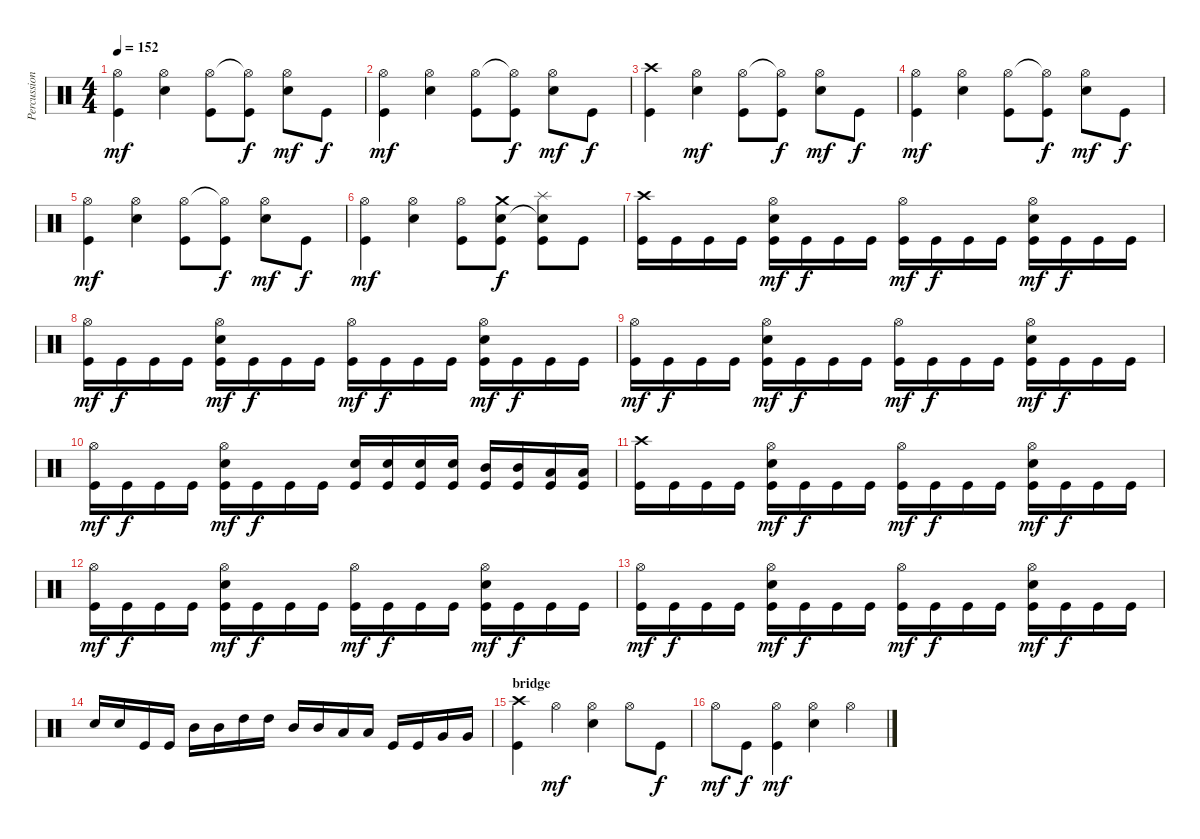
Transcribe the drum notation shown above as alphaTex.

\track ("Percussion" "Percussion") {instrument percussion}
\staff {score}
\articulation defaults
\ts (4 4)
\tempo 152
\clef neutral
\ks c
("Hi-Hat (open)" "Kick (hit)").4{dy mf} ("Hi-Hat (open)" "Snare (hit) 2").4 ("Hi-Hat (open)" "Kick (hit)").8 ("Hi-Hat (open)"{t} "Kick (hit)").8{dy f} ("Hi-Hat (open)" "Snare (hit) 2").8{dy mf} "Kick (hit)".8{dy f} |
("Hi-Hat (open)" "Kick (hit)").4{dy mf} ("Hi-Hat (open)" "Snare (hit) 2").4 ("Hi-Hat (open)" "Kick (hit)").8 ("Hi-Hat (open)"{t} "Kick (hit)").8{dy f} ("Hi-Hat (open)" "Snare (hit) 2").8{dy mf} "Kick (hit)".8{dy f} |
("Crash high (hit)" "Kick (hit)").4 ("Hi-Hat (open)" "Snare (hit) 2").4{dy mf} ("Hi-Hat (open)" "Kick (hit)").8 ("Hi-Hat (open)"{t} "Kick (hit)").8{dy f} ("Hi-Hat (open)" "Snare (hit) 2").8{dy mf} "Kick (hit)".8{dy f} |
("Hi-Hat (open)" "Kick (hit)").4{dy mf} ("Hi-Hat (open)" "Snare (hit) 2").4 ("Hi-Hat (open)" "Kick (hit)").8 ("Hi-Hat (open)"{t} "Kick (hit)").8{dy f} ("Hi-Hat (open)" "Snare (hit) 2").8{dy mf} "Kick (hit)".8{dy f} |
("Hi-Hat (open)" "Kick (hit)").4{dy mf} ("Hi-Hat (open)" "Snare (hit) 2").4 ("Hi-Hat (open)" "Kick (hit)").8 ("Hi-Hat (open)"{t} "Kick (hit)").8{dy f} ("Hi-Hat (open)" "Snare (hit) 2").8{dy mf} "Kick (hit)".8{dy f} |
("Hi-Hat (open)" "Kick (hit)").4{dy mf} ("Hi-Hat (open)" "Snare (hit) 2").4 ("Hi-Hat (open)" "Kick (hit)").8 ("Crash medium (hit)" "Snare (hit) 2" "Kick (hit)").8{dy f} ("Splash (hit)" "Snare (hit) 2"{t} "Kick (hit)").8 "Kick (hit)".8 |
("Crash high (hit)" "Kick (hit)").16 "Kick (hit)".16 "Kick (hit)".16 "Kick (hit)".16 ("Hi-Hat (open)" "Snare (hit) 2" "Kick (hit)").16{dy mf} "Kick (hit)".16{dy f} "Kick (hit)".16 "Kick (hit)".16 ("Hi-Hat (open)" "Kick (hit)").16{dy mf} "Kick (hit)".16{dy f} "Kick (hit)".16 "Kick (hit)".16 ("Hi-Hat (open)" "Snare (hit) 2" "Kick (hit)").16{dy mf} "Kick (hit)".16{dy f} "Kick (hit)".16 "Kick (hit)".16 |
("Hi-Hat (open)" "Kick (hit)").16{dy mf} "Kick (hit)".16{dy f} "Kick (hit)".16 "Kick (hit)".16 ("Hi-Hat (open)" "Snare (hit) 2" "Kick (hit)").16{dy mf} "Kick (hit)".16{dy f} "Kick (hit)".16 "Kick (hit)".16 ("Hi-Hat (open)" "Kick (hit)").16{dy mf} "Kick (hit)".16{dy f} "Kick (hit)".16 "Kick (hit)".16 ("Hi-Hat (open)" "Snare (hit) 2" "Kick (hit)").16{dy mf} "Kick (hit)".16{dy f} "Kick (hit)".16 "Kick (hit)".16 |
("Hi-Hat (open)" "Kick (hit)").16{dy mf} "Kick (hit)".16{dy f} "Kick (hit)".16 "Kick (hit)".16 ("Hi-Hat (open)" "Snare (hit) 2" "Kick (hit)").16{dy mf} "Kick (hit)".16{dy f} "Kick (hit)".16 "Kick (hit)".16 ("Hi-Hat (open)" "Kick (hit)").16{dy mf} "Kick (hit)".16{dy f} "Kick (hit)".16 "Kick (hit)".16 ("Hi-Hat (open)" "Snare (hit) 2" "Kick (hit)").16{dy mf} "Kick (hit)".16{dy f} "Kick (hit)".16 "Kick (hit)".16 |
("Hi-Hat (open)" "Kick (hit)").16{dy mf} "Kick (hit)".16{dy f} "Kick (hit)".16 "Kick (hit)".16 ("Hi-Hat (open)" "Snare (hit) 2" "Kick (hit)").16{dy mf} "Kick (hit)".16{dy f} "Kick (hit)".16 "Kick (hit)".16 ("Snare (hit) 2" "Kick (hit)").16 ("Snare (hit) 2" "Kick (hit)").16 ("Snare (hit) 2" "Kick (hit)").16 ("Snare (hit) 2" "Kick (hit)").16 ("Mid Tom (hit)" "Kick (hit)").16 ("Mid Tom (hit)" "Kick (hit)").16 ("Low Tom (hit)" "Kick (hit)").16 ("Low Tom (hit)" "Kick (hit)").16 |
("Crash high (hit)" "Kick (hit)").16 "Kick (hit)".16 "Kick (hit)".16 "Kick (hit)".16 ("Hi-Hat (open)" "Snare (hit) 2" "Kick (hit)").16{dy mf} "Kick (hit)".16{dy f} "Kick (hit)".16 "Kick (hit)".16 ("Hi-Hat (open)" "Kick (hit)").16{dy mf} "Kick (hit)".16{dy f} "Kick (hit)".16 "Kick (hit)".16 ("Hi-Hat (open)" "Snare (hit) 2" "Kick (hit)").16{dy mf} "Kick (hit)".16{dy f} "Kick (hit)".16 "Kick (hit)".16 |
("Hi-Hat (open)" "Kick (hit)").16{dy mf} "Kick (hit)".16{dy f} "Kick (hit)".16 "Kick (hit)".16 ("Hi-Hat (open)" "Snare (hit) 2" "Kick (hit)").16{dy mf} "Kick (hit)".16{dy f} "Kick (hit)".16 "Kick (hit)".16 ("Hi-Hat (open)" "Kick (hit)").16{dy mf} "Kick (hit)".16{dy f} "Kick (hit)".16 "Kick (hit)".16 ("Hi-Hat (open)" "Snare (hit) 2" "Kick (hit)").16{dy mf} "Kick (hit)".16{dy f} "Kick (hit)".16 "Kick (hit)".16 |
("Hi-Hat (open)" "Kick (hit)").16{dy mf} "Kick (hit)".16{dy f} "Kick (hit)".16 "Kick (hit)".16 ("Hi-Hat (open)" "Snare (hit) 2" "Kick (hit)").16{dy mf} "Kick (hit)".16{dy f} "Kick (hit)".16 "Kick (hit)".16 ("Hi-Hat (open)" "Kick (hit)").16{dy mf} "Kick (hit)".16{dy f} "Kick (hit)".16 "Kick (hit)".16 ("Hi-Hat (open)" "Snare (hit) 2" "Kick (hit)").16{dy mf} "Kick (hit)".16{dy f} "Kick (hit)".16 "Kick (hit)".16 |
"Snare (hit) 2".16 "Snare (hit) 2".16 "Kick (hit)".16 "Kick (hit)".16 "Mid Tom (hit)".16 "Mid Tom (hit)".16 "High Tom (hit)".16 "High Tom (hit)".16 "Mid Tom (hit)".16 "Mid Tom (hit)".16 "Low Tom (hit)".16 "Low Tom (hit)".16 "Kick (hit)".16 "Kick (hit)".16 "Very Low Tom (hit)".16 "Very Low Tom (hit)".16 |
\section ("" "bridge")
("Crash high (hit)" "Kick (hit)").4 "Hi-Hat (open)".4{dy mf} ("Hi-Hat (open)" "Snare (hit) 2").4 "Hi-Hat (open)".8 "Kick (hit)".8{dy f} |
"Hi-Hat (open)".8{dy mf} "Kick (hit)".8{dy f} ("Hi-Hat (open)" "Kick (hit)").4{dy mf} ("Hi-Hat (open)" "Snare (hit) 2").4 "Hi-Hat (open)".4
